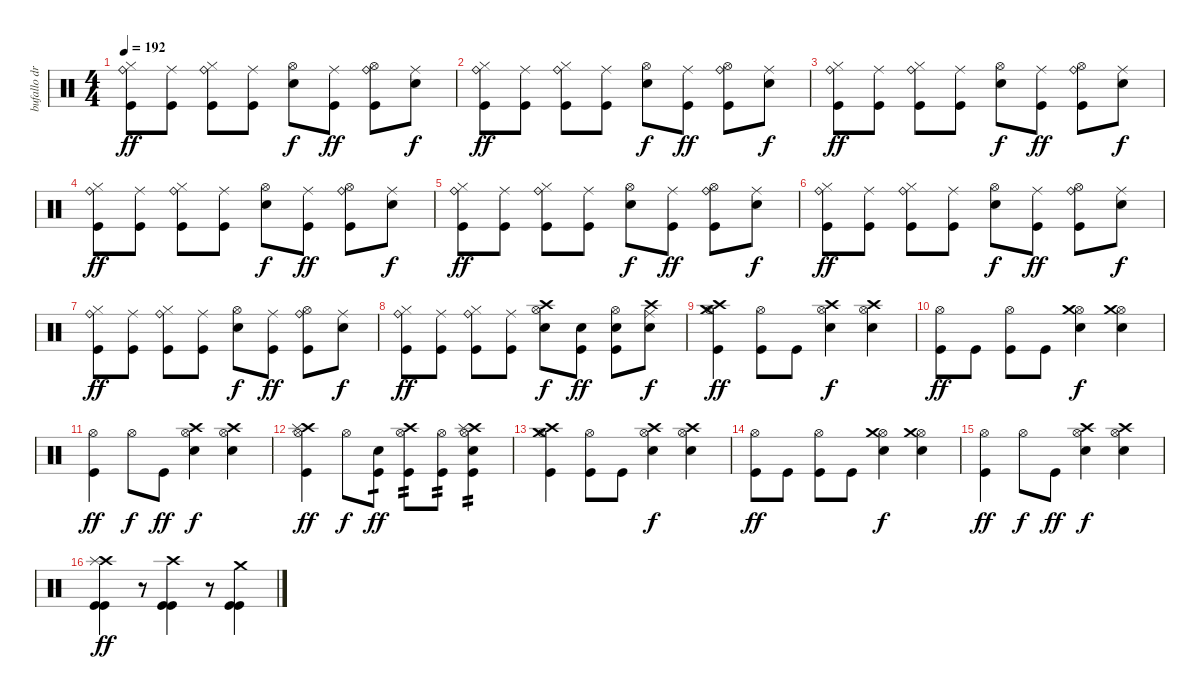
\track ("bufallo drums" "bufallo dr") {instrument percussion}
\staff {score}
\articulation defaults
\ts (4 4)
\tempo 192
\clef neutral
\ks c
("Hi-Hat (closed)" "Ride (bell)" "Kick (hit)").8{dy ff} ("Ride (middle)" "Kick (hit)").8 ("Hi-Hat (closed)" "Ride (bell)" "Kick (hit)").8 ("Ride (middle)" "Kick (hit)").8 ("Hi-Hat (open)" "Electric Snare (hit)").8{dy f} ("Ride (middle)" "Kick (hit)").8{dy ff} ("Hi-Hat (open)" "Ride (bell)" "Kick (hit)").8 ("Ride (middle)" "Electric Snare (hit)").8{dy f} |
("Hi-Hat (closed)" "Ride (bell)" "Kick (hit)").8{dy ff} ("Ride (middle)" "Kick (hit)").8 ("Hi-Hat (closed)" "Ride (bell)" "Kick (hit)").8 ("Ride (middle)" "Kick (hit)").8 ("Hi-Hat (open)" "Electric Snare (hit)").8{dy f} ("Ride (middle)" "Kick (hit)").8{dy ff} ("Hi-Hat (open)" "Ride (bell)" "Kick (hit)").8 ("Ride (middle)" "Electric Snare (hit)").8{dy f} |
("Hi-Hat (closed)" "Ride (bell)" "Kick (hit)").8{dy ff} ("Ride (middle)" "Kick (hit)").8 ("Hi-Hat (closed)" "Ride (bell)" "Kick (hit)").8 ("Ride (middle)" "Kick (hit)").8 ("Hi-Hat (open)" "Electric Snare (hit)").8{dy f} ("Ride (middle)" "Kick (hit)").8{dy ff} ("Hi-Hat (open)" "Ride (bell)" "Kick (hit)").8 ("Ride (middle)" "Electric Snare (hit)").8{dy f} |
("Hi-Hat (closed)" "Ride (bell)" "Kick (hit)").8{dy ff} ("Ride (middle)" "Kick (hit)").8 ("Hi-Hat (closed)" "Ride (bell)" "Kick (hit)").8 ("Ride (middle)" "Kick (hit)").8 ("Hi-Hat (open)" "Electric Snare (hit)").8{dy f} ("Ride (middle)" "Kick (hit)").8{dy ff} ("Hi-Hat (open)" "Ride (bell)" "Kick (hit)").8 ("Ride (middle)" "Electric Snare (hit)").8{dy f} |
("Hi-Hat (closed)" "Ride (bell)" "Kick (hit)").8{dy ff} ("Ride (middle)" "Kick (hit)").8 ("Hi-Hat (closed)" "Ride (bell)" "Kick (hit)").8 ("Ride (middle)" "Kick (hit)").8 ("Hi-Hat (open)" "Electric Snare (hit)").8{dy f} ("Ride (middle)" "Kick (hit)").8{dy ff} ("Hi-Hat (open)" "Ride (bell)" "Kick (hit)").8 ("Ride (middle)" "Electric Snare (hit)").8{dy f} |
("Hi-Hat (closed)" "Ride (bell)" "Kick (hit)").8{dy ff} ("Ride (middle)" "Kick (hit)").8 ("Hi-Hat (closed)" "Ride (bell)" "Kick (hit)").8 ("Ride (middle)" "Kick (hit)").8 ("Hi-Hat (open)" "Electric Snare (hit)").8{dy f} ("Ride (middle)" "Kick (hit)").8{dy ff} ("Hi-Hat (open)" "Ride (bell)" "Kick (hit)").8 ("Ride (middle)" "Electric Snare (hit)").8{dy f} |
("Hi-Hat (closed)" "Ride (bell)" "Kick (hit)").8{dy ff} ("Ride (middle)" "Kick (hit)").8 ("Hi-Hat (closed)" "Ride (bell)" "Kick (hit)").8 ("Ride (middle)" "Kick (hit)").8 ("Hi-Hat (open)" "Electric Snare (hit)").8{dy f} ("Ride (middle)" "Kick (hit)").8{dy ff} ("Hi-Hat (open)" "Ride (bell)" "Kick (hit)").8 ("Ride (middle)" "Electric Snare (hit)").8{dy f} |
("Hi-Hat (closed)" "Ride (bell)" "Kick (hit)").8{dy ff} ("Ride (middle)" "Kick (hit)").8 ("Hi-Hat (closed)" "Ride (bell)" "Kick (hit)").8 ("Ride (middle)" "Kick (hit)").8 ("Hi-Hat (open)" "Electric Snare (hit)" "Crash high (hit)").8{dy f} ("Electric Snare (hit)" "Kick (hit)").8{dy ff} ("Hi-Hat (open)" "Electric Snare (hit)" "Kick (hit)").8 ("Ride (middle)" "Electric Snare (hit)" "Crash high (hit)").8{dy f} |
("Hi-Hat (open)" "Crash medium (hit)" "Crash high (hit)" "Kick (hit)").4{dy ff} ("Hi-Hat (open)" "Kick (hit)").8 "Kick (hit)".8 ("Hi-Hat (open)" "Electric Snare (hit)" "Crash high (hit)").4{dy f} ("Hi-Hat (open)" "Electric Snare (hit)" "Crash high (hit)").4 |
("Hi-Hat (open)" "Kick (hit)").8{dy ff} "Kick (hit)".8 ("Hi-Hat (open)" "Kick (hit)").8 "Kick (hit)".8 ("Hi-Hat (open)" "Electric Snare (hit)" "Crash medium (hit)").4{dy f} ("Hi-Hat (open)" "Electric Snare (hit)" "Crash medium (hit)").4 |
("Hi-Hat (open)" "Kick (hit)").4{dy ff} "Hi-Hat (open)".8{dy f} "Kick (hit)".8{dy ff} ("Hi-Hat (open)" "Electric Snare (hit)" "Crash high (hit)").4{dy f} ("Hi-Hat (open)" "Electric Snare (hit)" "Crash high (hit)").4 |
("Hi-Hat (open)" "Crash high (hit)" "Splash (hit)" "Kick (hit)").4{dy ff} "Hi-Hat (open)".8{dy f} ("Electric Snare (hit)" "Kick (hit)").8{tp 1 dy ff} ("Hi-Hat (open)" "Crash high (hit)" "Kick (hit)").8{tp 2} ("Hi-Hat (open)" "Kick (hit)").8{tp 2} ("Hi-Hat (open)" "Crash high (hit)" "Splash (hit)" "Electric Snare (hit)" "Kick (hit)").4{tp 2} |
("Hi-Hat (open)" "Crash medium (hit)" "Crash high (hit)" "Kick (hit)").4 ("Hi-Hat (open)" "Kick (hit)").8 "Kick (hit)".8 ("Hi-Hat (open)" "Electric Snare (hit)" "Crash high (hit)").4{dy f} ("Hi-Hat (open)" "Electric Snare (hit)" "Crash high (hit)").4 |
("Hi-Hat (open)" "Kick (hit)").8{dy ff} "Kick (hit)".8 ("Hi-Hat (open)" "Kick (hit)").8 "Kick (hit)".8 ("Hi-Hat (open)" "Electric Snare (hit)" "Crash medium (hit)").4{dy f} ("Hi-Hat (open)" "Electric Snare (hit)" "Crash medium (hit)").4 |
("Hi-Hat (open)" "Kick (hit)").4{dy ff} "Hi-Hat (open)".8{dy f} "Kick (hit)".8{dy ff} ("Hi-Hat (open)" "Electric Snare (hit)" "Crash high (hit)").4{dy f} ("Hi-Hat (open)" "Electric Snare (hit)" "Crash high (hit)").4 |
("Crash high (hit)" "Splash (hit)" "Kick (hit)" "Kick (hit)").4{dy ff} r.8 ("Crash high (hit)" "Kick (hit)" "Kick (hit)").4 r.8 ("Crash medium (hit)" "Kick (hit)" "Kick (hit)").4
